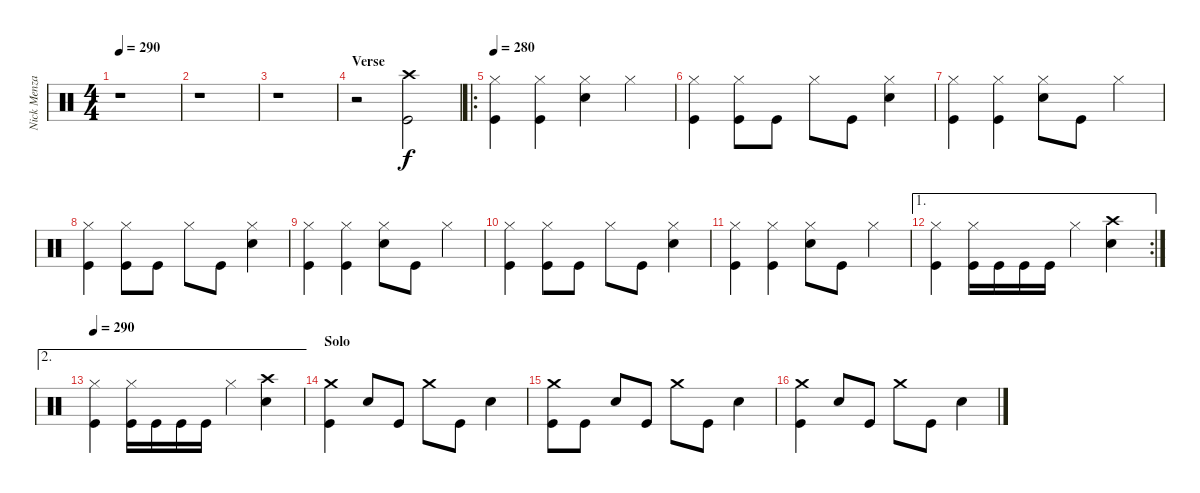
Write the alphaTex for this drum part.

\track ("Nick Menza" "Nick Menza") {instrument percussion}
\staff {score}
\articulation defaults
\ts (4 4)
\tempo 290
\clef neutral
\ks c
r.1{dy f} |
r.1 |
r.1 |
\section ("" "Verse")
r.2 ("Crash high (hit)" "Kick (hit)").2 |
\ro
\tempo 280
("Hi-Hat (closed)" "Kick (hit)").4 ("Hi-Hat (closed)" "Kick (hit)").4 ("Hi-Hat (closed)" "Snare (hit) 2").4 "Hi-Hat (closed)".4 |
("Hi-Hat (closed)" "Kick (hit)").4 ("Hi-Hat (closed)" "Kick (hit)").8 "Kick (hit)".8 "Hi-Hat (closed)".8 "Kick (hit)".8 ("Hi-Hat (closed)" "Snare (hit) 2").4 |
("Hi-Hat (closed)" "Kick (hit)").4 ("Hi-Hat (closed)" "Kick (hit)").4 ("Hi-Hat (closed)" "Snare (hit) 2").8 "Kick (hit)".8 "Hi-Hat (closed)".4 |
("Hi-Hat (closed)" "Kick (hit)").4 ("Hi-Hat (closed)" "Kick (hit)").8 "Kick (hit)".8 "Hi-Hat (closed)".8 "Kick (hit)".8 ("Hi-Hat (closed)" "Snare (hit) 2").4 |
("Hi-Hat (closed)" "Kick (hit)").4 ("Hi-Hat (closed)" "Kick (hit)").4 ("Hi-Hat (closed)" "Snare (hit) 2").8 "Kick (hit)".8 "Hi-Hat (closed)".4 |
("Hi-Hat (closed)" "Kick (hit)").4 ("Hi-Hat (closed)" "Kick (hit)").8 "Kick (hit)".8 "Hi-Hat (closed)".8 "Kick (hit)".8 ("Hi-Hat (closed)" "Snare (hit) 2").4 |
("Hi-Hat (closed)" "Kick (hit)").4 ("Hi-Hat (closed)" "Kick (hit)").4 ("Hi-Hat (closed)" "Snare (hit) 2").8 "Kick (hit)".8 "Hi-Hat (closed)".4 |
\ae 1
\rc 2
("Hi-Hat (closed)" "Kick (hit)").4 ("Hi-Hat (closed)" "Kick (hit)").16 "Kick (hit)".16 "Kick (hit)".16 "Kick (hit)".16 "Hi-Hat (closed)".4 ("Crash high (hit)" "Snare (hit) 2").4 |
\ae 2
\tempo 290
("Hi-Hat (closed)" "Kick (hit)").4 ("Hi-Hat (closed)" "Kick (hit)").16 "Kick (hit)".16 "Kick (hit)".16 "Kick (hit)".16 "Hi-Hat (closed)".4 ("Crash high (hit)" "Snare (hit) 2").4 |
\section ("" "Solo")
("Crash medium (hit)" "Kick (hit)").4 "Snare (hit) 2".8 "Kick (hit)".8 "Crash medium (hit)".8 "Kick (hit)".8 "Snare (hit) 2".4 |
("Crash medium (hit)" "Kick (hit)").8 "Kick (hit)".8 "Snare (hit) 2".8 "Kick (hit)".8 "Crash medium (hit)".8 "Kick (hit)".8 "Snare (hit) 2".4 |
("Crash medium (hit)" "Kick (hit)").4 "Snare (hit) 2".8 "Kick (hit)".8 "Crash medium (hit)".8 "Kick (hit)".8 "Snare (hit) 2".4
